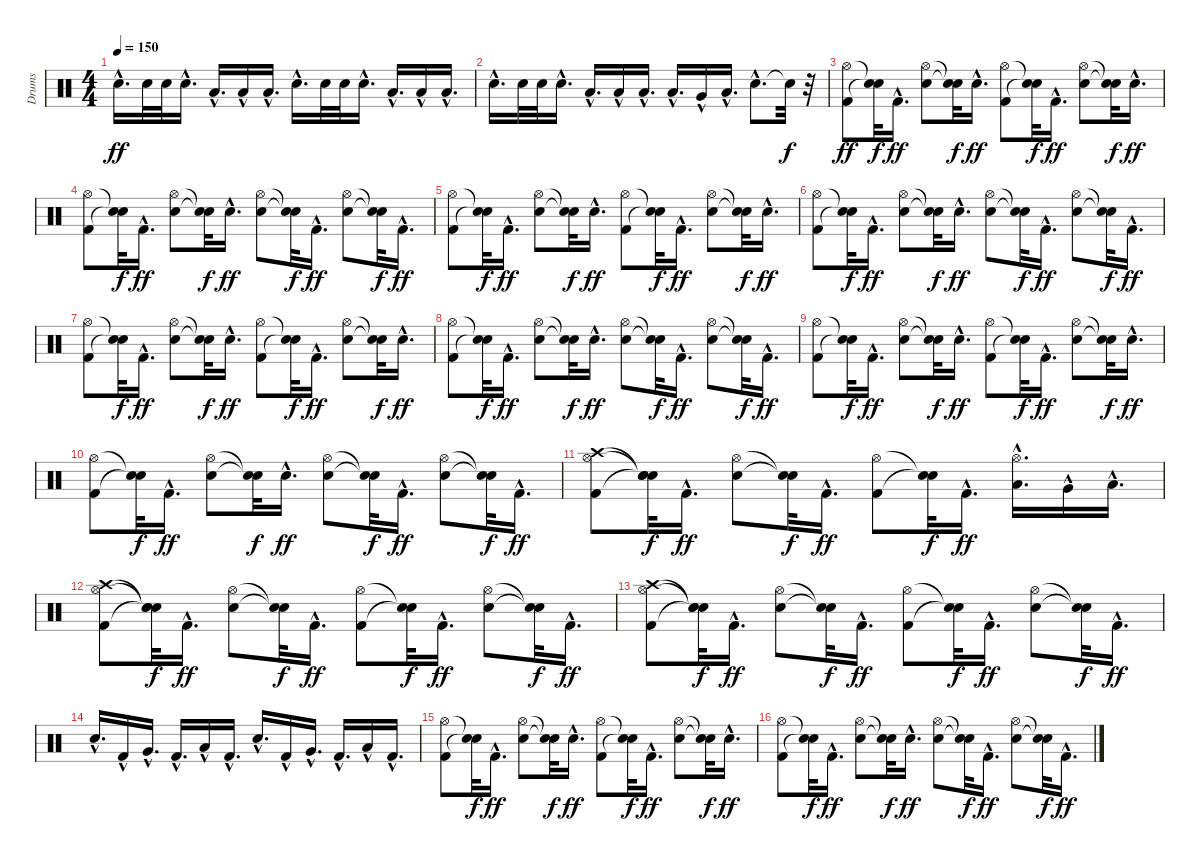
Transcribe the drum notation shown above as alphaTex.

\track ("Drums" "Drums") {instrument percussion}
\staff {score}
\articulation defaults
\ts (4 4)
\tempo 150
\clef neutral
\ks c "Snare (hit) 2"{hac}.16{d dy ff} "Snare (hit) 2".32 "Snare (hit) 2".32 "Snare (hit) 2"{hac}.16{d} "Low Tom (hit)"{hac}.16{d} "Low Tom (hit)"{hac}.16 "Low Tom (hit)"{hac}.16{d} "Snare (hit) 2"{hac}.16{d} "Snare (hit) 2".32 "Snare (hit) 2".32 "Snare (hit) 2"{hac}.16{d} "Low Tom (hit)"{hac}.16{d} "Low Tom (hit)"{hac}.16 "Low Tom (hit)"{hac}.16{d}
|
"Snare (hit) 2"{hac}.16{d} "Snare (hit) 2".32 "Snare (hit) 2".32 "Snare (hit) 2"{hac}.16{d} "Low Tom (hit)"{hac}.16{d} "Low Tom (hit)"{hac}.16 "Low Tom (hit)"{hac}.16{d} "Low Tom (hit)"{hac}.16{d} "Very Low Tom (hit)"{hac}.16 "Low Floor Tom (hit)"{hac}.16{d} "Snare (hit) 2"{hac}.8{d} "Snare (hit)"{t}.32{dy f} r.32 |
("Kick (hit) 2" "Hi-Hat (open)").8{dy ff} ("Snare (hit)"{t} "Snare (hit)"{t}).32{dy f} "Kick (hit) 2"{hac}.16{d dy ff} ("Snare (hit) 2" "Hi-Hat (open)").8 ("Snare (hit)"{t} "Snare (hit)"{t}).32{dy f} "Snare (hit) 2"{hac}.16{d dy ff} ("Kick (hit) 2" "Hi-Hat (open)").8 ("Snare (hit)"{t} "Snare (hit)"{t}).32{dy f} "Kick (hit) 2"{hac}.16{d dy ff} ("Snare (hit) 2" "Hi-Hat (open)").8 ("Snare (hit)"{t} "Snare (hit)"{t}).32{dy f} "Snare (hit) 2"{hac}.16{d dy ff} |
("Kick (hit) 2" "Hi-Hat (open)").8 ("Snare (hit)"{t} "Snare (hit)"{t}).32{dy f} "Kick (hit) 2"{hac}.16{d dy ff} ("Snare (hit) 2" "Hi-Hat (open)").8 ("Snare (hit)"{t} "Snare (hit)"{t}).32{dy f} "Snare (hit) 2"{hac}.16{d dy ff} ("Snare (hit) 2" "Hi-Hat (open)").8 ("Snare (hit)"{t} "Snare (hit)"{t}).32{dy f} "Kick (hit) 2"{hac}.16{d dy ff} ("Snare (hit) 2" "Hi-Hat (open)").8 ("Snare (hit)"{t} "Snare (hit)"{t}).32{dy f} "Kick (hit) 2"{hac}.16{d dy ff} |
("Kick (hit) 2" "Hi-Hat (open)").8 ("Snare (hit)"{t} "Snare (hit)"{t}).32{dy f} "Kick (hit) 2"{hac}.16{d dy ff} ("Snare (hit) 2" "Hi-Hat (open)").8 ("Snare (hit)"{t} "Snare (hit)"{t}).32{dy f} "Snare (hit) 2"{hac}.16{d dy ff} ("Kick (hit) 2" "Hi-Hat (open)").8 ("Snare (hit)"{t} "Snare (hit)"{t}).32{dy f} "Kick (hit) 2"{hac}.16{d dy ff} ("Snare (hit) 2" "Hi-Hat (open)").8 ("Snare (hit)"{t} "Snare (hit)"{t}).32{dy f} "Snare (hit) 2"{hac}.16{d dy ff} |
("Kick (hit) 2" "Hi-Hat (open)").8 ("Snare (hit)"{t} "Snare (hit)"{t}).32{dy f} "Kick (hit) 2"{hac}.16{d dy ff} ("Snare (hit) 2" "Hi-Hat (open)").8 ("Snare (hit)"{t} "Snare (hit)"{t}).32{dy f} "Snare (hit) 2"{hac}.16{d dy ff} ("Snare (hit) 2" "Hi-Hat (open)").8 ("Snare (hit)"{t} "Snare (hit)"{t}).32{dy f} "Kick (hit) 2"{hac}.16{d dy ff} ("Snare (hit) 2" "Hi-Hat (open)").8 ("Snare (hit)"{t} "Snare (hit)"{t}).32{dy f} "Kick (hit) 2"{hac}.16{d dy ff} |
("Kick (hit) 2" "Hi-Hat (open)").8 ("Snare (hit)"{t} "Snare (hit)"{t}).32{dy f} "Kick (hit) 2"{hac}.16{d dy ff} ("Snare (hit) 2" "Hi-Hat (open)").8 ("Snare (hit)"{t} "Snare (hit)"{t}).32{dy f} "Snare (hit) 2"{hac}.16{d dy ff} ("Kick (hit) 2" "Hi-Hat (open)").8 ("Snare (hit)"{t} "Snare (hit)"{t}).32{dy f} "Kick (hit) 2"{hac}.16{d dy ff} ("Snare (hit) 2" "Hi-Hat (open)").8 ("Snare (hit)"{t} "Snare (hit)"{t}).32{dy f} "Snare (hit) 2"{hac}.16{d dy ff} |
("Kick (hit) 2" "Hi-Hat (open)").8 ("Snare (hit)"{t} "Snare (hit)"{t}).32{dy f} "Kick (hit) 2"{hac}.16{d dy ff} ("Snare (hit) 2" "Hi-Hat (open)").8 ("Snare (hit)"{t} "Snare (hit)"{t}).32{dy f} "Snare (hit) 2"{hac}.16{d dy ff} ("Snare (hit) 2" "Hi-Hat (open)").8 ("Snare (hit)"{t} "Snare (hit)"{t}).32{dy f} "Kick (hit) 2"{hac}.16{d dy ff} ("Snare (hit) 2" "Hi-Hat (open)").8 ("Snare (hit)"{t} "Snare (hit)"{t}).32{dy f} "Kick (hit) 2"{hac}.16{d dy ff} |
("Kick (hit) 2" "Hi-Hat (open)").8 ("Snare (hit)"{t} "Snare (hit)"{t}).32{dy f} "Kick (hit) 2"{hac}.16{d dy ff} ("Snare (hit) 2" "Hi-Hat (open)").8 ("Snare (hit)"{t} "Snare (hit)"{t}).32{dy f} "Snare (hit) 2"{hac}.16{d dy ff} ("Kick (hit) 2" "Hi-Hat (open)").8 ("Snare (hit)"{t} "Snare (hit)"{t}).32{dy f} "Kick (hit) 2"{hac}.16{d dy ff} ("Snare (hit) 2" "Hi-Hat (open)").8 ("Snare (hit)"{t} "Snare (hit)"{t}).32{dy f} "Snare (hit) 2"{hac}.16{d dy ff} |
("Kick (hit) 2" "Hi-Hat (open)").8 ("Snare (hit)"{t} "Snare (hit)"{t}).32{dy f} "Kick (hit) 2"{hac}.16{d dy ff} ("Snare (hit) 2" "Hi-Hat (open)").8 ("Snare (hit)"{t} "Snare (hit)"{t}).32{dy f} "Snare (hit) 2"{hac}.16{d dy ff} ("Snare (hit) 2" "Hi-Hat (open)").8 ("Snare (hit)"{t} "Snare (hit)"{t}).32{dy f} "Kick (hit) 2"{hac}.16{d dy ff} ("Snare (hit) 2" "Hi-Hat (open)").8 ("Snare (hit)"{t} "Snare (hit)"{t}).32{dy f} "Kick (hit) 2"{hac}.16{d dy ff} |
("Kick (hit) 2" "Hi-Hat (open)" "Crash high (hit)").8 ("Snare (hit)"{t} "Snare (hit)"{t} "Snare (hit)"{t}).32{dy f} "Kick (hit) 2"{hac}.16{d dy ff} ("Snare (hit) 2" "Hi-Hat (open)").8 ("Snare (hit)"{t} "Snare (hit)"{t}).32{dy f} "Kick (hit) 2"{hac}.16{d dy ff} ("Kick (hit) 2" "Hi-Hat (open)").8 ("Snare (hit)"{t} "Snare (hit)"{t}).32{dy f} "Kick (hit) 2"{hac}.16{d dy ff} ("Low Tom (hit)"{hac} "Hi-Hat (open)"{hac}).16{d} "Very Low Tom (hit)"{hac}.16 "Low Floor Tom (hit)"{hac}.16{d} |
("Kick (hit) 2" "Hi-Hat (open)" "Crash high (hit)").8 ("Snare (hit)"{t} "Snare (hit)"{t} "Snare (hit)"{t}).32{dy f} "Kick (hit) 2"{hac}.16{d dy ff} ("Snare (hit) 2" "Hi-Hat (open)").8 ("Snare (hit)"{t} "Snare (hit)"{t}).32{dy f} "Kick (hit) 2"{hac}.16{d dy ff} ("Kick (hit) 2" "Hi-Hat (open)").8 ("Snare (hit)"{t} "Snare (hit)"{t}).32{dy f} "Kick (hit) 2"{hac}.16{d dy ff} ("Snare (hit) 2" "Hi-Hat (open)").8 ("Snare (hit)"{t} "Snare (hit)"{t}).32{dy f} "Kick (hit) 2"{hac}.16{d dy ff} |
("Kick (hit) 2" "Hi-Hat (open)" "Crash high (hit)").8 ("Snare (hit)"{t} "Snare (hit)"{t} "Snare (hit)"{t}).32{dy f} "Kick (hit) 2"{hac}.16{d dy ff} ("Snare (hit) 2" "Hi-Hat (open)").8 ("Snare (hit)"{t} "Snare (hit)"{t}).32{dy f} "Kick (hit) 2"{hac}.16{d dy ff} ("Kick (hit) 2" "Hi-Hat (open)").8 ("Snare (hit)"{t} "Snare (hit)"{t}).32{dy f} "Kick (hit) 2"{hac}.16{d dy ff} ("Snare (hit) 2" "Hi-Hat (open)").8 ("Snare (hit)"{t} "Snare (hit)"{t}).32{dy f} "Kick (hit) 2"{hac}.16{d dy ff} |
"Snare (hit) 2"{hac}.16{d} "Kick (hit) 2"{hac}.16 "Very Low Tom (hit)"{hac}.16{d} "Kick (hit) 2"{hac}.16{d} "Low Floor Tom (hit)"{hac}.16 "Kick (hit) 2"{hac}.16{d} "Snare (hit) 2"{hac}.16{d} "Kick (hit) 2"{hac}.16 "Very Low Tom (hit)"{hac}.16{d} "Kick (hit) 2"{hac}.16{d} "Low Floor Tom (hit)"{hac}.16 "Kick (hit) 2"{hac}.16{d} |
("Kick (hit) 2" "Hi-Hat (open)").8 ("Snare (hit)"{t} "Snare (hit)"{t}).32{dy f} "Kick (hit) 2"{hac}.16{d dy ff} ("Snare (hit) 2" "Hi-Hat (open)").8 ("Snare (hit)"{t} "Snare (hit)"{t}).32{dy f} "Snare (hit) 2"{hac}.16{d dy ff} ("Kick (hit) 2" "Hi-Hat (open)").8 ("Snare (hit)"{t} "Snare (hit)"{t}).32{dy f} "Kick (hit) 2"{hac}.16{d dy ff} ("Snare (hit) 2" "Hi-Hat (open)").8 ("Snare (hit)"{t} "Snare (hit)"{t}).32{dy f} "Snare (hit) 2"{hac}.16{d dy ff} |
("Kick (hit) 2" "Hi-Hat (open)").8 ("Snare (hit)"{t} "Snare (hit)"{t}).32{dy f} "Kick (hit) 2"{hac}.16{d dy ff} ("Snare (hit) 2" "Hi-Hat (open)").8 ("Snare (hit)"{t} "Snare (hit)"{t}).32{dy f} "Snare (hit) 2"{hac}.16{d dy ff} ("Snare (hit) 2" "Hi-Hat (open)").8 ("Snare (hit)"{t} "Snare (hit)"{t}).32{dy f} "Kick (hit) 2"{hac}.16{d dy ff} ("Snare (hit) 2" "Hi-Hat (open)").8 ("Snare (hit)"{t} "Snare (hit)"{t}).32{dy f} "Kick (hit) 2"{hac}.16{d dy ff}
